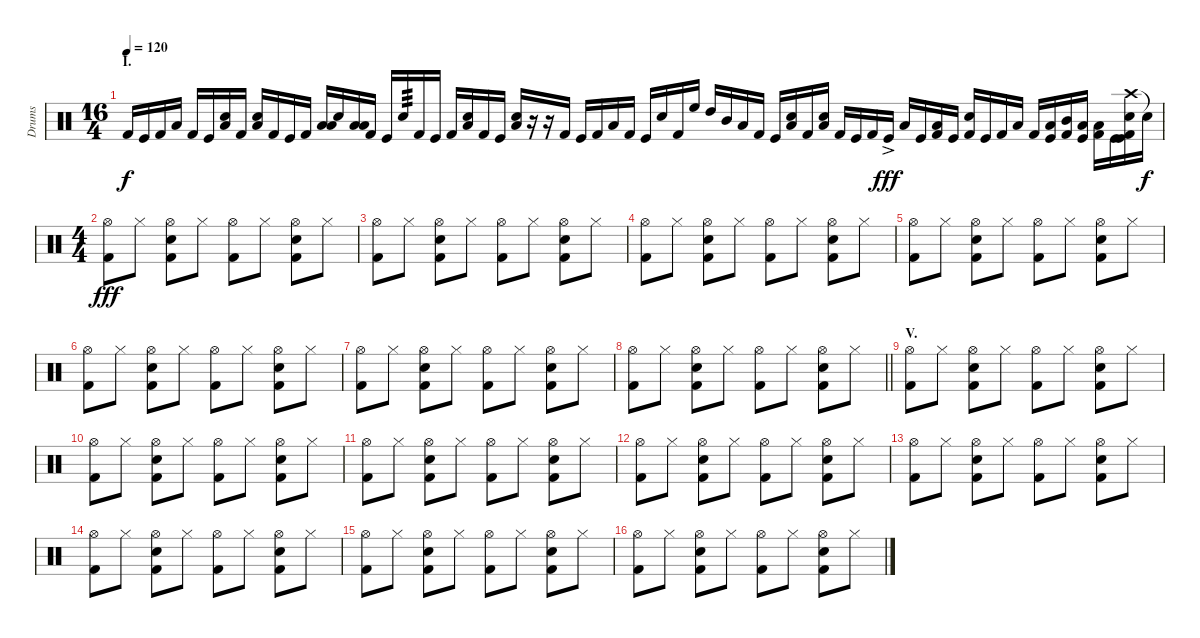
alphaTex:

\track ("Drums" "Drums") {instrument percussion}
\staff {score}
\articulation defaults
\ts (16 4)
\section ("" "I.")
\tempo 120
\clef neutral
\ks c "Kick (hit) 2".16{dy f} "Kick (hit)".16 "Kick (hit) 2".16 "Low Floor Tom (hit)".16 "Kick (hit) 2".16 "Kick (hit)".16
("Low Floor Tom (hit)" "Electric Snare (hit)").16 "Kick (hit) 2".16 ("Low Tom (hit)" "Electric Snare (hit)").16 "Kick (hit) 2".16 "Kick (hit)".16 "Kick (hit) 2".16 ("Low Tom (hit)" "Low Floor Tom (hit)").16 "Electric Snare (hit)".16 ("Low Tom (hit)" "Low Floor Tom (hit)").16 "Kick (hit) 2".16 "Kick (hit)".16 "Electric Snare (hit)".16{tp 3} "Kick (hit) 2".16 "Kick (hit)".16 "Kick (hit) 2".16 ("Low Floor Tom (hit)" "Electric Snare (hit)").16 "Kick (hit) 2".16 "Kick (hit)".16 ("Low Floor Tom (hit)" "Electric Snare (hit)").16 r.16 r.16 "Kick (hit) 2".16 "Kick (hit)".16 "Kick (hit) 2".16 "Low Floor Tom (hit)".16 "Kick (hit) 2".16 "Kick (hit)".16 "Electric Snare (hit)".16 "Kick (hit) 2".16 "High Floor Tom (hit)".16 "High Tom (hit)".16 "Mid Tom (hit)".16 "Low Tom (hit)".16 "Kick (hit) 2".16 "Kick (hit)".16 ("Low Floor Tom (hit)" "Electric Snare (hit)").16 "Kick (hit) 2".16 ("Low Floor Tom (hit)" "Electric Snare (hit)").16 "Kick (hit) 2".16 "Kick (hit)".16 "Kick (hit) 2".16 "Kick (hit)"{ac}.16{dy fff} "Low Floor Tom (hit)".16 "Kick (hit)".16 ("Low Tom (hit)" "Kick (hit) 2").16 "Kick (hit)".16 ("Electric Snare (hit)" "Kick (hit) 2").16 "Kick (hit)".16 "Kick (hit) 2".16 "Low Floor Tom (hit)".16 "Kick (hit) 2".16 ("Low Tom (hit)" "Kick (hit)").16 ("Mid Tom (hit)" "Kick (hit) 2").16 ("Low Tom (hit)" "Kick (hit)").16 ("Low Floor Tom (hit)" "Kick (hit) 2").16 "Kick (hit)".16 ("Crash high (hit)" "Electric Snare (hit)" "Kick (hit)" "Kick (hit) 2").16 "Snare (hit)"{t}.16{dy f} |
\ts (4 4)
("Hi-Hat (open)" "Kick (hit) 2").8{dy fff} "Hi-Hat (closed)".8 ("Hi-Hat (open)" "Electric Snare (hit)" "Kick (hit) 2").8 "Hi-Hat (closed)".8 ("Hi-Hat (open)" "Kick (hit) 2").8 "Hi-Hat (closed)".8 ("Hi-Hat (open)" "Electric Snare (hit)" "Kick (hit) 2").8 "Hi-Hat (closed)".8 |
("Hi-Hat (open)" "Kick (hit) 2").8 "Hi-Hat (closed)".8 ("Hi-Hat (open)" "Electric Snare (hit)" "Kick (hit) 2").8 "Hi-Hat (closed)".8 ("Hi-Hat (open)" "Kick (hit) 2").8 "Hi-Hat (closed)".8 ("Hi-Hat (open)" "Electric Snare (hit)" "Kick (hit) 2").8 "Hi-Hat (closed)".8 |
("Hi-Hat (open)" "Kick (hit) 2").8 "Hi-Hat (closed)".8 ("Hi-Hat (open)" "Electric Snare (hit)" "Kick (hit) 2").8 "Hi-Hat (closed)".8 ("Hi-Hat (open)" "Kick (hit) 2").8 "Hi-Hat (closed)".8 ("Hi-Hat (open)" "Electric Snare (hit)" "Kick (hit) 2").8 "Hi-Hat (closed)".8 |
("Hi-Hat (open)" "Kick (hit) 2").8 "Hi-Hat (closed)".8 ("Hi-Hat (open)" "Electric Snare (hit)" "Kick (hit) 2").8 "Hi-Hat (closed)".8 ("Hi-Hat (open)" "Kick (hit) 2").8 "Hi-Hat (closed)".8 ("Hi-Hat (open)" "Electric Snare (hit)" "Kick (hit) 2").8 "Hi-Hat (closed)".8 |
("Hi-Hat (open)" "Kick (hit) 2").8 "Hi-Hat (closed)".8 ("Hi-Hat (open)" "Electric Snare (hit)" "Kick (hit) 2").8 "Hi-Hat (closed)".8 ("Hi-Hat (open)" "Kick (hit) 2").8 "Hi-Hat (closed)".8 ("Hi-Hat (open)" "Electric Snare (hit)" "Kick (hit) 2").8 "Hi-Hat (closed)".8 |
("Hi-Hat (open)" "Kick (hit) 2").8 "Hi-Hat (closed)".8 ("Hi-Hat (open)" "Electric Snare (hit)" "Kick (hit) 2").8 "Hi-Hat (closed)".8 ("Hi-Hat (open)" "Kick (hit) 2").8 "Hi-Hat (closed)".8 ("Hi-Hat (open)" "Electric Snare (hit)" "Kick (hit) 2").8 "Hi-Hat (closed)".8 |
\barLineRight lightlight
("Hi-Hat (open)" "Kick (hit) 2").8 "Hi-Hat (closed)".8 ("Hi-Hat (open)" "Electric Snare (hit)" "Kick (hit) 2").8 "Hi-Hat (closed)".8 ("Hi-Hat (open)" "Kick (hit) 2").8 "Hi-Hat (closed)".8 ("Hi-Hat (open)" "Electric Snare (hit)" "Kick (hit) 2").8 "Hi-Hat (closed)".8 |
\section ("" "V.")
("Hi-Hat (open)" "Kick (hit) 2").8 "Hi-Hat (closed)".8 ("Hi-Hat (open)" "Electric Snare (hit)" "Kick (hit) 2").8 "Hi-Hat (closed)".8 ("Hi-Hat (open)" "Kick (hit) 2").8 "Hi-Hat (closed)".8 ("Hi-Hat (open)" "Electric Snare (hit)" "Kick (hit) 2").8 "Hi-Hat (closed)".8 |
("Hi-Hat (open)" "Kick (hit) 2").8 "Hi-Hat (closed)".8 ("Hi-Hat (open)" "Electric Snare (hit)" "Kick (hit) 2").8 "Hi-Hat (closed)".8 ("Hi-Hat (open)" "Kick (hit) 2").8 "Hi-Hat (closed)".8 ("Hi-Hat (open)" "Electric Snare (hit)" "Kick (hit) 2").8 "Hi-Hat (closed)".8 |
("Hi-Hat (open)" "Kick (hit) 2").8 "Hi-Hat (closed)".8 ("Hi-Hat (open)" "Electric Snare (hit)" "Kick (hit) 2").8 "Hi-Hat (closed)".8 ("Hi-Hat (open)" "Kick (hit) 2").8 "Hi-Hat (closed)".8 ("Hi-Hat (open)" "Electric Snare (hit)" "Kick (hit) 2").8 "Hi-Hat (closed)".8 |
("Hi-Hat (open)" "Kick (hit) 2").8 "Hi-Hat (closed)".8 ("Hi-Hat (open)" "Electric Snare (hit)" "Kick (hit) 2").8 "Hi-Hat (closed)".8 ("Hi-Hat (open)" "Kick (hit) 2").8 "Hi-Hat (closed)".8 ("Hi-Hat (open)" "Electric Snare (hit)" "Kick (hit) 2").8 "Hi-Hat (closed)".8 |
("Hi-Hat (open)" "Kick (hit) 2").8 "Hi-Hat (closed)".8 ("Hi-Hat (open)" "Electric Snare (hit)" "Kick (hit) 2").8 "Hi-Hat (closed)".8 ("Hi-Hat (open)" "Kick (hit) 2").8 "Hi-Hat (closed)".8 ("Hi-Hat (open)" "Electric Snare (hit)" "Kick (hit) 2").8 "Hi-Hat (closed)".8 |
("Hi-Hat (open)" "Kick (hit) 2").8 "Hi-Hat (closed)".8 ("Hi-Hat (open)" "Electric Snare (hit)" "Kick (hit) 2").8 "Hi-Hat (closed)".8 ("Hi-Hat (open)" "Kick (hit) 2").8 "Hi-Hat (closed)".8 ("Hi-Hat (open)" "Electric Snare (hit)" "Kick (hit) 2").8 "Hi-Hat (closed)".8 |
("Hi-Hat (open)" "Kick (hit) 2").8 "Hi-Hat (closed)".8 ("Hi-Hat (open)" "Electric Snare (hit)" "Kick (hit) 2").8 "Hi-Hat (closed)".8 ("Hi-Hat (open)" "Kick (hit) 2").8 "Hi-Hat (closed)".8 ("Hi-Hat (open)" "Electric Snare (hit)" "Kick (hit) 2").8 "Hi-Hat (closed)".8 |
("Hi-Hat (open)" "Kick (hit) 2").8 "Hi-Hat (closed)".8 ("Hi-Hat (open)" "Electric Snare (hit)" "Kick (hit) 2").8 "Hi-Hat (closed)".8 ("Hi-Hat (open)" "Kick (hit) 2").8 "Hi-Hat (closed)".8 ("Hi-Hat (open)" "Electric Snare (hit)" "Kick (hit) 2").8 "Hi-Hat (closed)".8
